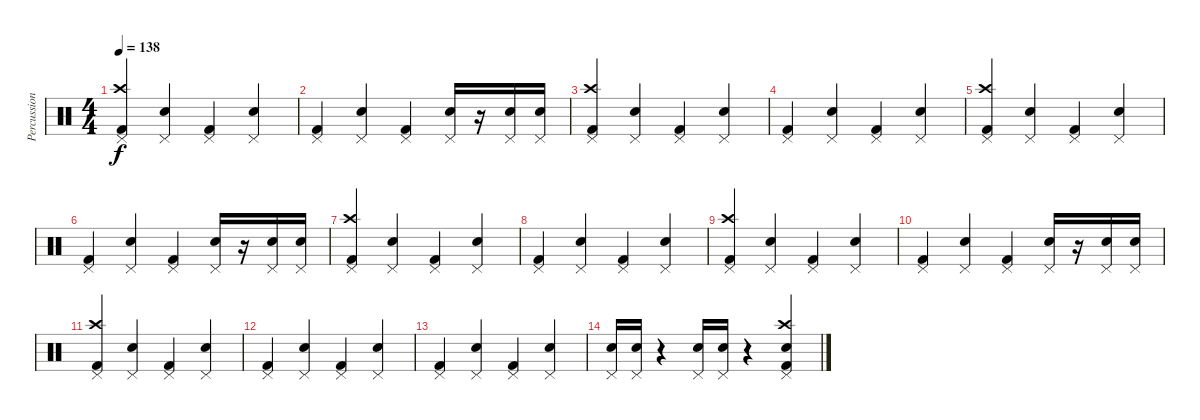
\track ("Percussion" "Percussion") {instrument percussion}
\staff {score}
\articulation defaults
\ts (4 4)
\tempo 138
\clef neutral
\ks c
("Pedal Hi-Hat (hit)" "Crash high (hit)" "Kick (hit) 2").4{dy f} ("Pedal Hi-Hat (hit)" "Snare (hit) 2").4 ("Pedal Hi-Hat (hit)" "Kick (hit) 2").4 ("Pedal Hi-Hat (hit)" "Snare (hit) 2").4 |
("Pedal Hi-Hat (hit)" "Kick (hit) 2").4 ("Pedal Hi-Hat (hit)" "Snare (hit) 2").4 ("Pedal Hi-Hat (hit)" "Kick (hit) 2").4 ("Pedal Hi-Hat (hit)" "Snare (hit) 2").16 r.16 ("Pedal Hi-Hat (hit)" "Snare (hit) 2").16 ("Pedal Hi-Hat (hit)" "Snare (hit) 2").16 |
("Pedal Hi-Hat (hit)" "Crash high (hit)" "Kick (hit) 2").4 ("Pedal Hi-Hat (hit)" "Snare (hit) 2").4 ("Pedal Hi-Hat (hit)" "Kick (hit) 2").4 ("Pedal Hi-Hat (hit)" "Snare (hit) 2").4 |
("Pedal Hi-Hat (hit)" "Kick (hit) 2").4 ("Pedal Hi-Hat (hit)" "Snare (hit) 2").4 ("Pedal Hi-Hat (hit)" "Kick (hit) 2").4 ("Pedal Hi-Hat (hit)" "Snare (hit) 2").4 |
("Pedal Hi-Hat (hit)" "Crash high (hit)" "Kick (hit) 2").4 ("Pedal Hi-Hat (hit)" "Snare (hit) 2").4 ("Pedal Hi-Hat (hit)" "Kick (hit) 2").4 ("Pedal Hi-Hat (hit)" "Snare (hit) 2").4 |
("Pedal Hi-Hat (hit)" "Kick (hit) 2").4 ("Pedal Hi-Hat (hit)" "Snare (hit) 2").4 ("Pedal Hi-Hat (hit)" "Kick (hit) 2").4 ("Pedal Hi-Hat (hit)" "Snare (hit) 2").16 r.16 ("Pedal Hi-Hat (hit)" "Snare (hit) 2").16 ("Pedal Hi-Hat (hit)" "Snare (hit) 2").16 |
("Pedal Hi-Hat (hit)" "Crash high (hit)" "Kick (hit) 2").4 ("Pedal Hi-Hat (hit)" "Snare (hit) 2").4 ("Pedal Hi-Hat (hit)" "Kick (hit) 2").4 ("Pedal Hi-Hat (hit)" "Snare (hit) 2").4 |
("Pedal Hi-Hat (hit)" "Kick (hit) 2").4 ("Pedal Hi-Hat (hit)" "Snare (hit) 2").4 ("Pedal Hi-Hat (hit)" "Kick (hit) 2").4 ("Pedal Hi-Hat (hit)" "Snare (hit) 2").4 |
("Pedal Hi-Hat (hit)" "Crash high (hit)" "Kick (hit) 2").4 ("Pedal Hi-Hat (hit)" "Snare (hit) 2").4 ("Pedal Hi-Hat (hit)" "Kick (hit) 2").4 ("Pedal Hi-Hat (hit)" "Snare (hit) 2").4 |
("Pedal Hi-Hat (hit)" "Kick (hit) 2").4 ("Pedal Hi-Hat (hit)" "Snare (hit) 2").4 ("Pedal Hi-Hat (hit)" "Kick (hit) 2").4 ("Pedal Hi-Hat (hit)" "Snare (hit) 2").16 r.16 ("Pedal Hi-Hat (hit)" "Snare (hit) 2").16 ("Pedal Hi-Hat (hit)" "Snare (hit) 2").16 |
("Pedal Hi-Hat (hit)" "Crash high (hit)" "Kick (hit) 2").4 ("Pedal Hi-Hat (hit)" "Snare (hit) 2").4 ("Pedal Hi-Hat (hit)" "Kick (hit) 2").4 ("Pedal Hi-Hat (hit)" "Snare (hit) 2").4 |
("Pedal Hi-Hat (hit)" "Kick (hit) 2").4 ("Pedal Hi-Hat (hit)" "Snare (hit) 2").4 ("Pedal Hi-Hat (hit)" "Kick (hit) 2").4 ("Pedal Hi-Hat (hit)" "Snare (hit) 2").4 |
("Pedal Hi-Hat (hit)" "Kick (hit) 2").4 ("Pedal Hi-Hat (hit)" "Snare (hit) 2").4 ("Pedal Hi-Hat (hit)" "Kick (hit) 2").4 ("Pedal Hi-Hat (hit)" "Snare (hit) 2").4 |
("Pedal Hi-Hat (hit)" "Electric Snare (hit)").16 ("Pedal Hi-Hat (hit)" "Snare (hit) 2").16 r.4 ("Pedal Hi-Hat (hit)" "Electric Snare (hit)").16 ("Pedal Hi-Hat (hit)" "Snare (hit) 2").16 r.4 ("Pedal Hi-Hat (hit)" "Snare (hit) 2" "Kick (hit) 2" "Crash high (hit)").4
